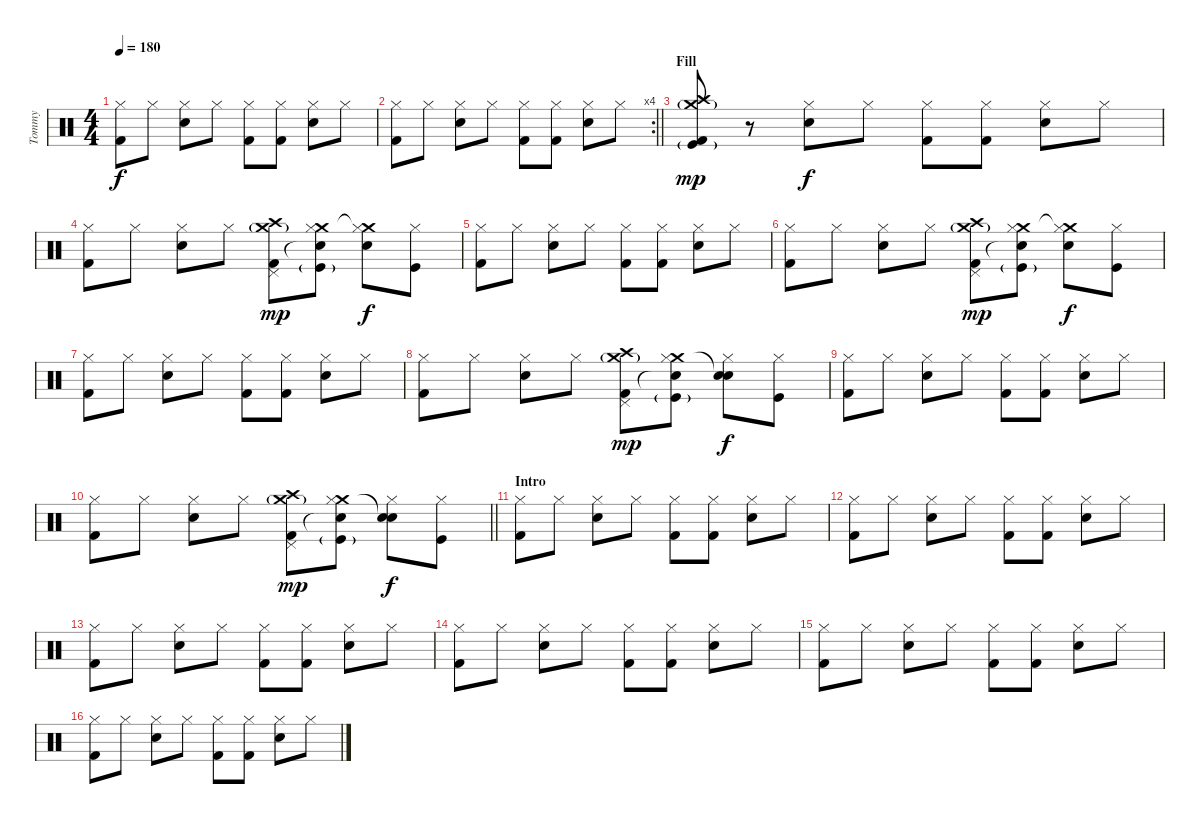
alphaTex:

\track ("Tommy" "Tommy") {instrument percussion}
\staff {score}
\articulation defaults
\ts (4 4)
\tempo 180
\clef neutral
\ks c
("Hi-Hat (closed)" "Kick (hit) 2").8{dy f} "Hi-Hat (closed)".8 ("Hi-Hat (closed)" "Electric Snare (hit)").8 "Hi-Hat (closed)".8 ("Hi-Hat (closed)" "Kick (hit) 2").8 ("Hi-Hat (closed)" "Kick (hit) 2").8 ("Hi-Hat (closed)" "Electric Snare (hit)").8 "Hi-Hat (closed)".8 |
\rc 4
\barLineRight lightlight
("Hi-Hat (closed)" "Kick (hit) 2").8 "Hi-Hat (closed)".8 ("Hi-Hat (closed)" "Electric Snare (hit)").8 "Hi-Hat (closed)".8 ("Hi-Hat (closed)" "Kick (hit) 2").8 ("Hi-Hat (closed)" "Kick (hit) 2").8 ("Hi-Hat (closed)" "Electric Snare (hit)").8 "Hi-Hat (closed)".8 |
\section ("" "Fill")
("Crash medium (hit)"{g} "Crash high (hit)" "Kick (hit) 2" "Kick (hit)"{g}).8{dy mp} r.8 ("Hi-Hat (closed)" "Electric Snare (hit)").8{dy f} "Hi-Hat (closed)".8 ("Hi-Hat (closed)" "Kick (hit) 2").8 ("Hi-Hat (closed)" "Kick (hit) 2").8 ("Hi-Hat (closed)" "Electric Snare (hit)").8 "Hi-Hat (closed)".8 |
("Hi-Hat (closed)" "Kick (hit) 2").8 "Hi-Hat (closed)".8 ("Hi-Hat (closed)" "Electric Snare (hit)").8 "Hi-Hat (closed)".8 ("Crash medium (hit)"{g} "Crash high (hit)" "Kick (hit) 2" "Pedal Hi-Hat (hit)").8{dy mp} ("Crash medium (hit)" "Hi-Hat (closed)" "Snare (hit)"{t} "Kick (hit)"{g}).8 ("Crash medium (hit)"{t} "Hi-Hat (closed)" "Electric Snare (hit)").8{dy f} ("Hi-Hat (closed)" "Kick (hit)").8 |
("Hi-Hat (closed)" "Kick (hit) 2").8 "Hi-Hat (closed)".8 ("Hi-Hat (closed)" "Electric Snare (hit)").8 "Hi-Hat (closed)".8 ("Hi-Hat (closed)" "Kick (hit) 2").8 ("Hi-Hat (closed)" "Kick (hit) 2").8 ("Hi-Hat (closed)" "Electric Snare (hit)").8 "Hi-Hat (closed)".8 |
("Hi-Hat (closed)" "Kick (hit) 2").8 "Hi-Hat (closed)".8 ("Hi-Hat (closed)" "Electric Snare (hit)").8 "Hi-Hat (closed)".8 ("Crash medium (hit)"{g} "Crash high (hit)" "Kick (hit) 2" "Pedal Hi-Hat (hit)").8{dy mp} ("Crash medium (hit)" "Hi-Hat (closed)" "Snare (hit)"{t} "Kick (hit)"{g}).8 ("Crash medium (hit)"{t} "Hi-Hat (closed)" "Electric Snare (hit)").8{dy f} ("Hi-Hat (closed)" "Kick (hit)").8 |
("Hi-Hat (closed)" "Kick (hit) 2").8 "Hi-Hat (closed)".8 ("Hi-Hat (closed)" "Electric Snare (hit)").8 "Hi-Hat (closed)".8 ("Hi-Hat (closed)" "Kick (hit) 2").8 ("Hi-Hat (closed)" "Kick (hit) 2").8 ("Hi-Hat (closed)" "Electric Snare (hit)").8 "Hi-Hat (closed)".8 |
("Hi-Hat (closed)" "Kick (hit) 2").8 "Hi-Hat (closed)".8 ("Hi-Hat (closed)" "Electric Snare (hit)").8 "Hi-Hat (closed)".8 ("Crash medium (hit)"{g} "Crash high (hit)" "Kick (hit) 2" "Pedal Hi-Hat (hit)").8{dy mp} ("Crash medium (hit)" "Hi-Hat (closed)" "Snare (hit)"{t} "Kick (hit)"{g}).8 ("Snare (hit)"{t} "Hi-Hat (closed)" "Electric Snare (hit)").8{dy f} ("Hi-Hat (closed)" "Kick (hit)").8 |
("Hi-Hat (closed)" "Kick (hit) 2").8 "Hi-Hat (closed)".8 ("Hi-Hat (closed)" "Electric Snare (hit)").8 "Hi-Hat (closed)".8 ("Hi-Hat (closed)" "Kick (hit) 2").8 ("Hi-Hat (closed)" "Kick (hit) 2").8 ("Hi-Hat (closed)" "Electric Snare (hit)").8 "Hi-Hat (closed)".8 |
\barLineRight lightlight
("Hi-Hat (closed)" "Kick (hit) 2").8 "Hi-Hat (closed)".8 ("Hi-Hat (closed)" "Electric Snare (hit)").8 "Hi-Hat (closed)".8 ("Crash medium (hit)"{g} "Crash high (hit)" "Kick (hit) 2" "Pedal Hi-Hat (hit)").8{dy mp} ("Crash medium (hit)" "Hi-Hat (closed)" "Snare (hit)"{t} "Kick (hit)"{g}).8 ("Snare (hit)"{t} "Hi-Hat (closed)" "Electric Snare (hit)").8{dy f} ("Hi-Hat (closed)" "Kick (hit)").8 |
\section ("" "Intro")
("Hi-Hat (closed)" "Kick (hit) 2").8 "Hi-Hat (closed)".8 ("Hi-Hat (closed)" "Electric Snare (hit)").8 "Hi-Hat (closed)".8 ("Hi-Hat (closed)" "Kick (hit) 2").8 ("Hi-Hat (closed)" "Kick (hit) 2").8 ("Hi-Hat (closed)" "Electric Snare (hit)").8 "Hi-Hat (closed)".8 |
("Hi-Hat (closed)" "Kick (hit) 2").8 "Hi-Hat (closed)".8 ("Hi-Hat (closed)" "Electric Snare (hit)").8 "Hi-Hat (closed)".8 ("Hi-Hat (closed)" "Kick (hit) 2").8 ("Hi-Hat (closed)" "Kick (hit) 2").8 ("Hi-Hat (closed)" "Electric Snare (hit)").8 "Hi-Hat (closed)".8 |
("Hi-Hat (closed)" "Kick (hit) 2").8 "Hi-Hat (closed)".8 ("Hi-Hat (closed)" "Electric Snare (hit)").8 "Hi-Hat (closed)".8 ("Hi-Hat (closed)" "Kick (hit) 2").8 ("Hi-Hat (closed)" "Kick (hit) 2").8 ("Hi-Hat (closed)" "Electric Snare (hit)").8 "Hi-Hat (closed)".8 |
("Hi-Hat (closed)" "Kick (hit) 2").8 "Hi-Hat (closed)".8 ("Hi-Hat (closed)" "Electric Snare (hit)").8 "Hi-Hat (closed)".8 ("Hi-Hat (closed)" "Kick (hit) 2").8 ("Hi-Hat (closed)" "Kick (hit) 2").8 ("Hi-Hat (closed)" "Electric Snare (hit)").8 "Hi-Hat (closed)".8 |
("Hi-Hat (closed)" "Kick (hit) 2").8 "Hi-Hat (closed)".8 ("Hi-Hat (closed)" "Electric Snare (hit)").8 "Hi-Hat (closed)".8 ("Hi-Hat (closed)" "Kick (hit) 2").8 ("Hi-Hat (closed)" "Kick (hit) 2").8 ("Hi-Hat (closed)" "Electric Snare (hit)").8 "Hi-Hat (closed)".8 |
("Hi-Hat (closed)" "Kick (hit) 2").8 "Hi-Hat (closed)".8 ("Hi-Hat (closed)" "Electric Snare (hit)").8 "Hi-Hat (closed)".8 ("Hi-Hat (closed)" "Kick (hit) 2").8 ("Hi-Hat (closed)" "Kick (hit) 2").8 ("Hi-Hat (closed)" "Electric Snare (hit)").8 "Hi-Hat (closed)".8
